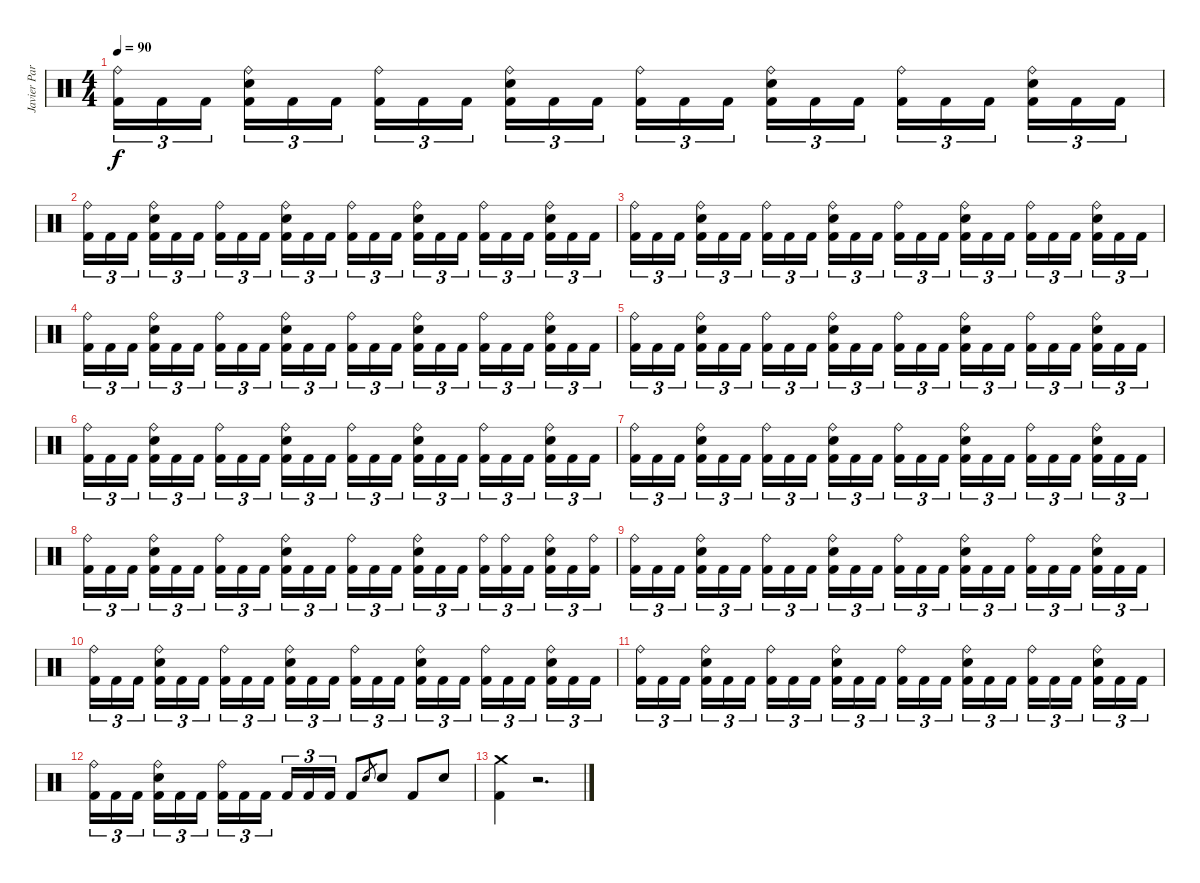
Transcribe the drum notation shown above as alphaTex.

\track ("Javier Partida" "Javier Par") {instrument percussion}
\staff {score}
\articulation defaults
\ts (4 4)
\tempo 90
\clef neutral
\ks c
("Ride (bell)" "Kick (hit) 2").16{tu (3 2) dy f} "Kick (hit) 2".16{tu (3 2)} "Kick (hit) 2".16{tu (3 2)} ("Ride (bell)" "Electric Snare (hit)" "Kick (hit) 2").16{tu (3 2)} "Kick (hit) 2".16{tu (3 2)} "Kick (hit) 2".16{tu (3 2)} ("Ride (bell)" "Kick (hit) 2").16{tu (3 2)} "Kick (hit) 2".16{tu (3 2)} "Kick (hit) 2".16{tu (3 2)} ("Ride (bell)" "Electric Snare (hit)" "Kick (hit) 2").16{tu (3 2)} "Kick (hit) 2".16{tu (3 2)} "Kick (hit) 2".16{tu (3 2)} ("Ride (bell)" "Kick (hit) 2").16{tu (3 2)} "Kick (hit) 2".16{tu (3 2)} "Kick (hit) 2".16{tu (3 2)} ("Ride (bell)" "Electric Snare (hit)" "Kick (hit) 2").16{tu (3 2)} "Kick (hit) 2".16{tu (3 2)} "Kick (hit) 2".16{tu (3 2)} ("Ride (bell)" "Kick (hit) 2").16{tu (3 2)} "Kick (hit) 2".16{tu (3 2)} "Kick (hit) 2".16{tu (3 2)} ("Ride (bell)" "Electric Snare (hit)" "Kick (hit) 2").16{tu (3 2)} "Kick (hit) 2".16{tu (3 2)} "Kick (hit) 2".16{tu (3 2)} |
("Ride (bell)" "Kick (hit) 2").16{tu (3 2)} "Kick (hit) 2".16{tu (3 2)} "Kick (hit) 2".16{tu (3 2)} ("Ride (bell)" "Electric Snare (hit)" "Kick (hit) 2").16{tu (3 2)} "Kick (hit) 2".16{tu (3 2)} "Kick (hit) 2".16{tu (3 2)} ("Ride (bell)" "Kick (hit) 2").16{tu (3 2)} "Kick (hit) 2".16{tu (3 2)} "Kick (hit) 2".16{tu (3 2)} ("Ride (bell)" "Electric Snare (hit)" "Kick (hit) 2").16{tu (3 2)} "Kick (hit) 2".16{tu (3 2)} "Kick (hit) 2".16{tu (3 2)} ("Ride (bell)" "Kick (hit) 2").16{tu (3 2)} "Kick (hit) 2".16{tu (3 2)} "Kick (hit) 2".16{tu (3 2)} ("Ride (bell)" "Electric Snare (hit)" "Kick (hit) 2").16{tu (3 2)} "Kick (hit) 2".16{tu (3 2)} "Kick (hit) 2".16{tu (3 2)} ("Ride (bell)" "Kick (hit) 2").16{tu (3 2)} "Kick (hit) 2".16{tu (3 2)} "Kick (hit) 2".16{tu (3 2)} ("Ride (bell)" "Electric Snare (hit)" "Kick (hit) 2").16{tu (3 2)} "Kick (hit) 2".16{tu (3 2)} "Kick (hit) 2".16{tu (3 2)} |
("Ride (bell)" "Kick (hit) 2").16{tu (3 2)} "Kick (hit) 2".16{tu (3 2)} "Kick (hit) 2".16{tu (3 2)} ("Ride (bell)" "Electric Snare (hit)" "Kick (hit) 2").16{tu (3 2)} "Kick (hit) 2".16{tu (3 2)} "Kick (hit) 2".16{tu (3 2)} ("Ride (bell)" "Kick (hit) 2").16{tu (3 2)} "Kick (hit) 2".16{tu (3 2)} "Kick (hit) 2".16{tu (3 2)} ("Ride (bell)" "Electric Snare (hit)" "Kick (hit) 2").16{tu (3 2)} "Kick (hit) 2".16{tu (3 2)} "Kick (hit) 2".16{tu (3 2)} ("Ride (bell)" "Kick (hit) 2").16{tu (3 2)} "Kick (hit) 2".16{tu (3 2)} "Kick (hit) 2".16{tu (3 2)} ("Ride (bell)" "Electric Snare (hit)" "Kick (hit) 2").16{tu (3 2)} "Kick (hit) 2".16{tu (3 2)} "Kick (hit) 2".16{tu (3 2)} ("Ride (bell)" "Kick (hit) 2").16{tu (3 2)} "Kick (hit) 2".16{tu (3 2)} "Kick (hit) 2".16{tu (3 2)} ("Ride (bell)" "Electric Snare (hit)" "Kick (hit) 2").16{tu (3 2)} "Kick (hit) 2".16{tu (3 2)} "Kick (hit) 2".16{tu (3 2)} |
("Ride (bell)" "Kick (hit) 2").16{tu (3 2)} "Kick (hit) 2".16{tu (3 2)} "Kick (hit) 2".16{tu (3 2)} ("Ride (bell)" "Electric Snare (hit)" "Kick (hit) 2").16{tu (3 2)} "Kick (hit) 2".16{tu (3 2)} "Kick (hit) 2".16{tu (3 2)} ("Ride (bell)" "Kick (hit) 2").16{tu (3 2)} "Kick (hit) 2".16{tu (3 2)} "Kick (hit) 2".16{tu (3 2)} ("Ride (bell)" "Electric Snare (hit)" "Kick (hit) 2").16{tu (3 2)} "Kick (hit) 2".16{tu (3 2)} "Kick (hit) 2".16{tu (3 2)} ("Ride (bell)" "Kick (hit) 2").16{tu (3 2)} "Kick (hit) 2".16{tu (3 2)} "Kick (hit) 2".16{tu (3 2)} ("Ride (bell)" "Electric Snare (hit)" "Kick (hit) 2").16{tu (3 2)} "Kick (hit) 2".16{tu (3 2)} "Kick (hit) 2".16{tu (3 2)} ("Ride (bell)" "Kick (hit) 2").16{tu (3 2)} "Kick (hit) 2".16{tu (3 2)} "Kick (hit) 2".16{tu (3 2)} ("Ride (bell)" "Electric Snare (hit)" "Kick (hit) 2").16{tu (3 2)} "Kick (hit) 2".16{tu (3 2)} "Kick (hit) 2".16{tu (3 2)} |
("Ride (bell)" "Kick (hit) 2").16{tu (3 2)} "Kick (hit) 2".16{tu (3 2)} "Kick (hit) 2".16{tu (3 2)} ("Ride (bell)" "Electric Snare (hit)" "Kick (hit) 2").16{tu (3 2)} "Kick (hit) 2".16{tu (3 2)} "Kick (hit) 2".16{tu (3 2)} ("Ride (bell)" "Kick (hit) 2").16{tu (3 2)} "Kick (hit) 2".16{tu (3 2)} "Kick (hit) 2".16{tu (3 2)} ("Ride (bell)" "Electric Snare (hit)" "Kick (hit) 2").16{tu (3 2)} "Kick (hit) 2".16{tu (3 2)} "Kick (hit) 2".16{tu (3 2)} ("Ride (bell)" "Kick (hit) 2").16{tu (3 2)} "Kick (hit) 2".16{tu (3 2)} "Kick (hit) 2".16{tu (3 2)} ("Ride (bell)" "Electric Snare (hit)" "Kick (hit) 2").16{tu (3 2)} "Kick (hit) 2".16{tu (3 2)} "Kick (hit) 2".16{tu (3 2)} ("Ride (bell)" "Kick (hit) 2").16{tu (3 2)} "Kick (hit) 2".16{tu (3 2)} "Kick (hit) 2".16{tu (3 2)} ("Ride (bell)" "Electric Snare (hit)" "Kick (hit) 2").16{tu (3 2)} "Kick (hit) 2".16{tu (3 2)} "Kick (hit) 2".16{tu (3 2)} |
("Ride (bell)" "Kick (hit) 2").16{tu (3 2)} "Kick (hit) 2".16{tu (3 2)} "Kick (hit) 2".16{tu (3 2)} ("Ride (bell)" "Electric Snare (hit)" "Kick (hit) 2").16{tu (3 2)} "Kick (hit) 2".16{tu (3 2)} "Kick (hit) 2".16{tu (3 2)} ("Ride (bell)" "Kick (hit) 2").16{tu (3 2)} "Kick (hit) 2".16{tu (3 2)} "Kick (hit) 2".16{tu (3 2)} ("Ride (bell)" "Electric Snare (hit)" "Kick (hit) 2").16{tu (3 2)} "Kick (hit) 2".16{tu (3 2)} "Kick (hit) 2".16{tu (3 2)} ("Ride (bell)" "Kick (hit) 2").16{tu (3 2)} "Kick (hit) 2".16{tu (3 2)} "Kick (hit) 2".16{tu (3 2)} ("Ride (bell)" "Electric Snare (hit)" "Kick (hit) 2").16{tu (3 2)} "Kick (hit) 2".16{tu (3 2)} "Kick (hit) 2".16{tu (3 2)} ("Ride (bell)" "Kick (hit) 2").16{tu (3 2)} "Kick (hit) 2".16{tu (3 2)} "Kick (hit) 2".16{tu (3 2)} ("Ride (bell)" "Electric Snare (hit)" "Kick (hit) 2").16{tu (3 2)} "Kick (hit) 2".16{tu (3 2)} "Kick (hit) 2".16{tu (3 2)} |
("Ride (bell)" "Kick (hit) 2").16{tu (3 2)} "Kick (hit) 2".16{tu (3 2)} "Kick (hit) 2".16{tu (3 2)} ("Ride (bell)" "Electric Snare (hit)" "Kick (hit) 2").16{tu (3 2)} "Kick (hit) 2".16{tu (3 2)} "Kick (hit) 2".16{tu (3 2)} ("Ride (bell)" "Kick (hit) 2").16{tu (3 2)} "Kick (hit) 2".16{tu (3 2)} "Kick (hit) 2".16{tu (3 2)} ("Ride (bell)" "Electric Snare (hit)" "Kick (hit) 2").16{tu (3 2)} "Kick (hit) 2".16{tu (3 2)} "Kick (hit) 2".16{tu (3 2)} ("Ride (bell)" "Kick (hit) 2").16{tu (3 2)} "Kick (hit) 2".16{tu (3 2)} "Kick (hit) 2".16{tu (3 2)} ("Ride (bell)" "Electric Snare (hit)" "Kick (hit) 2").16{tu (3 2)} "Kick (hit) 2".16{tu (3 2)} "Kick (hit) 2".16{tu (3 2)} ("Ride (bell)" "Kick (hit) 2").16{tu (3 2)} "Kick (hit) 2".16{tu (3 2)} "Kick (hit) 2".16{tu (3 2)} ("Ride (bell)" "Electric Snare (hit)" "Kick (hit) 2").16{tu (3 2)} "Kick (hit) 2".16{tu (3 2)} "Kick (hit) 2".16{tu (3 2)} |
("Ride (bell)" "Kick (hit) 2").16{tu (3 2)} "Kick (hit) 2".16{tu (3 2)} "Kick (hit) 2".16{tu (3 2)} ("Ride (bell)" "Electric Snare (hit)" "Kick (hit) 2").16{tu (3 2)} "Kick (hit) 2".16{tu (3 2)} "Kick (hit) 2".16{tu (3 2)} ("Ride (bell)" "Kick (hit) 2").16{tu (3 2)} "Kick (hit) 2".16{tu (3 2)} "Kick (hit) 2".16{tu (3 2)} ("Ride (bell)" "Electric Snare (hit)" "Kick (hit) 2").16{tu (3 2)} "Kick (hit) 2".16{tu (3 2)} "Kick (hit) 2".16{tu (3 2)} ("Ride (bell)" "Kick (hit) 2").16{tu (3 2)} "Kick (hit) 2".16{tu (3 2)} "Kick (hit) 2".16{tu (3 2)} ("Ride (bell)" "Electric Snare (hit)" "Kick (hit) 2").16{tu (3 2)} "Kick (hit) 2".16{tu (3 2)} "Kick (hit) 2".16{tu (3 2)} ("Ride (bell)" "Kick (hit) 2").16{tu (3 2)} ("Ride (bell)" "Kick (hit) 2").16{tu (3 2)} "Kick (hit) 2".16{tu (3 2)} ("Ride (bell)" "Electric Snare (hit)" "Kick (hit) 2").16{tu (3 2)} "Kick (hit) 2".16{tu (3 2)} ("Ride (bell)" "Kick (hit) 2").16{tu (3 2)} |
("Ride (bell)" "Kick (hit) 2").16{tu (3 2)} "Kick (hit) 2".16{tu (3 2)} "Kick (hit) 2".16{tu (3 2)} ("Ride (bell)" "Electric Snare (hit)" "Kick (hit) 2").16{tu (3 2)} "Kick (hit) 2".16{tu (3 2)} "Kick (hit) 2".16{tu (3 2)} ("Ride (bell)" "Kick (hit) 2").16{tu (3 2)} "Kick (hit) 2".16{tu (3 2)} "Kick (hit) 2".16{tu (3 2)} ("Ride (bell)" "Electric Snare (hit)" "Kick (hit) 2").16{tu (3 2)} "Kick (hit) 2".16{tu (3 2)} "Kick (hit) 2".16{tu (3 2)} ("Ride (bell)" "Kick (hit) 2").16{tu (3 2)} "Kick (hit) 2".16{tu (3 2)} "Kick (hit) 2".16{tu (3 2)} ("Ride (bell)" "Electric Snare (hit)" "Kick (hit) 2").16{tu (3 2)} "Kick (hit) 2".16{tu (3 2)} "Kick (hit) 2".16{tu (3 2)} ("Ride (bell)" "Kick (hit) 2").16{tu (3 2)} "Kick (hit) 2".16{tu (3 2)} "Kick (hit) 2".16{tu (3 2)} ("Ride (bell)" "Electric Snare (hit)" "Kick (hit) 2").16{tu (3 2)} "Kick (hit) 2".16{tu (3 2)} "Kick (hit) 2".16{tu (3 2)} |
("Ride (bell)" "Kick (hit) 2").16{tu (3 2)} "Kick (hit) 2".16{tu (3 2)} "Kick (hit) 2".16{tu (3 2)} ("Ride (bell)" "Electric Snare (hit)" "Kick (hit) 2").16{tu (3 2)} "Kick (hit) 2".16{tu (3 2)} "Kick (hit) 2".16{tu (3 2)} ("Ride (bell)" "Kick (hit) 2").16{tu (3 2)} "Kick (hit) 2".16{tu (3 2)} "Kick (hit) 2".16{tu (3 2)} ("Ride (bell)" "Electric Snare (hit)" "Kick (hit) 2").16{tu (3 2)} "Kick (hit) 2".16{tu (3 2)} "Kick (hit) 2".16{tu (3 2)} ("Ride (bell)" "Kick (hit) 2").16{tu (3 2)} "Kick (hit) 2".16{tu (3 2)} "Kick (hit) 2".16{tu (3 2)} ("Ride (bell)" "Electric Snare (hit)" "Kick (hit) 2").16{tu (3 2)} "Kick (hit) 2".16{tu (3 2)} "Kick (hit) 2".16{tu (3 2)} ("Ride (bell)" "Kick (hit) 2").16{tu (3 2)} "Kick (hit) 2".16{tu (3 2)} "Kick (hit) 2".16{tu (3 2)} ("Ride (bell)" "Electric Snare (hit)" "Kick (hit) 2").16{tu (3 2)} "Kick (hit) 2".16{tu (3 2)} "Kick (hit) 2".16{tu (3 2)} |
("Ride (bell)" "Kick (hit) 2").16{tu (3 2)} "Kick (hit) 2".16{tu (3 2)} "Kick (hit) 2".16{tu (3 2)} ("Ride (bell)" "Electric Snare (hit)" "Kick (hit) 2").16{tu (3 2)} "Kick (hit) 2".16{tu (3 2)} "Kick (hit) 2".16{tu (3 2)} ("Ride (bell)" "Kick (hit) 2").16{tu (3 2)} "Kick (hit) 2".16{tu (3 2)} "Kick (hit) 2".16{tu (3 2)} ("Ride (bell)" "Electric Snare (hit)" "Kick (hit) 2").16{tu (3 2)} "Kick (hit) 2".16{tu (3 2)} "Kick (hit) 2".16{tu (3 2)} ("Ride (bell)" "Kick (hit) 2").16{tu (3 2)} "Kick (hit) 2".16{tu (3 2)} "Kick (hit) 2".16{tu (3 2)} ("Ride (bell)" "Electric Snare (hit)" "Kick (hit) 2").16{tu (3 2)} "Kick (hit) 2".16{tu (3 2)} "Kick (hit) 2".16{tu (3 2)} ("Ride (bell)" "Kick (hit) 2").16{tu (3 2)} "Kick (hit) 2".16{tu (3 2)} "Kick (hit) 2".16{tu (3 2)} ("Ride (bell)" "Electric Snare (hit)" "Kick (hit) 2").16{tu (3 2)} "Kick (hit) 2".16{tu (3 2)} "Kick (hit) 2".16{tu (3 2)} |
("Ride (bell)" "Kick (hit) 2").16{tu (3 2)} "Kick (hit) 2".16{tu (3 2)} "Kick (hit) 2".16{tu (3 2)} ("Ride (bell)" "Electric Snare (hit)" "Kick (hit) 2").16{tu (3 2)} "Kick (hit) 2".16{tu (3 2)} "Kick (hit) 2".16{tu (3 2)} ("Ride (bell)" "Kick (hit) 2").16{tu (3 2)} "Kick (hit) 2".16{tu (3 2)} "Kick (hit) 2".16{tu (3 2)} "Kick (hit) 2".16{tu (3 2)} "Kick (hit) 2".16{tu (3 2)} "Kick (hit) 2".16{tu (3 2)} "Kick (hit) 2".8 "Electric Snare (hit)".8{gr} "Electric Snare (hit)".8 "Kick (hit) 2".8 "Electric Snare (hit)".8 |
("Crash medium (hit)" "Kick (hit) 2").4 r.2{d}
